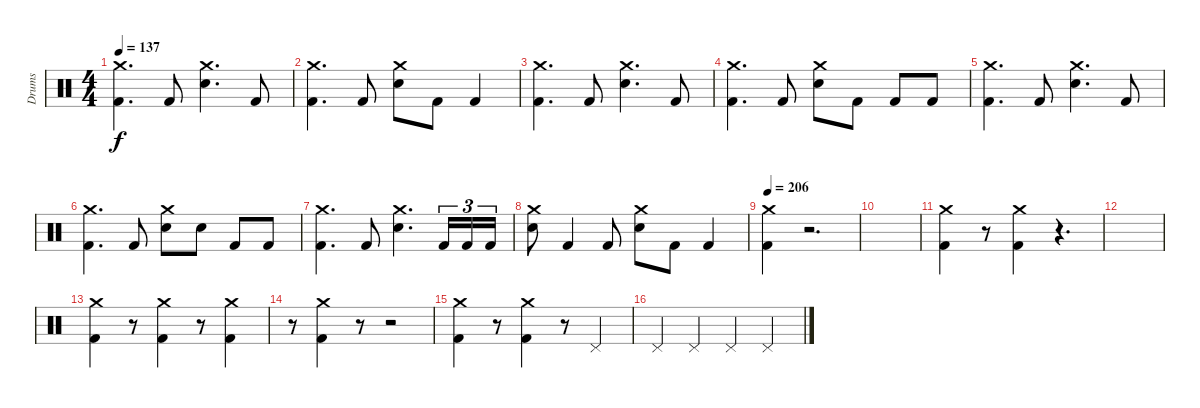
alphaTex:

\track ("Drums" "Drums") {instrument percussion}
\staff {score}
\articulation defaults
\ts (4 4)
\tempo 137
\clef neutral
\ks c
("Kick (hit) 2" "Crash medium (hit)").4{d dy f} "Kick (hit) 2".8 ("Snare (hit) 2" "Crash medium (hit)").4{d} "Kick (hit) 2".8 |
("Kick (hit) 2" "Crash medium (hit)").4{d} "Kick (hit) 2".8 ("Snare (hit) 2" "Crash medium (hit)").8 "Kick (hit) 2".8 "Kick (hit) 2".4 |
("Kick (hit) 2" "Crash medium (hit)").4{d} "Kick (hit) 2".8 ("Snare (hit) 2" "Crash medium (hit)").4{d} "Kick (hit) 2".8 |
("Kick (hit) 2" "Crash medium (hit)").4{d} "Kick (hit) 2".8 ("Snare (hit) 2" "Crash medium (hit)").8 "Kick (hit) 2".8 "Kick (hit) 2".8 "Kick (hit) 2".8 |
("Kick (hit) 2" "Crash medium (hit)").4{d} "Kick (hit) 2".8 ("Snare (hit) 2" "Crash medium (hit)").4{d} "Kick (hit) 2".8 |
("Kick (hit) 2" "Crash medium (hit)").4{d} "Kick (hit) 2".8 ("Snare (hit) 2" "Crash medium (hit)").8 "Snare (hit) 2".8 "Kick (hit) 2".8 "Kick (hit) 2".8 |
("Kick (hit) 2" "Crash medium (hit)").4{d} "Kick (hit) 2".8 ("Snare (hit) 2" "Crash medium (hit)").4{d} "Kick (hit) 2".16{tu (3 2)} "Kick (hit) 2".16{tu (3 2)} "Kick (hit) 2".16{tu (3 2)} |
("Snare (hit) 2" "Crash medium (hit)").8 "Kick (hit) 2".4 "Kick (hit) 2".8 ("Snare (hit) 2" "Crash medium (hit)").8 "Kick (hit) 2".8 "Kick (hit) 2".4 |
\tempo 206
("Kick (hit) 2" "Crash medium (hit)").4 r.2{d} |
|
("Kick (hit) 2" "Crash medium (hit)").4 r.8 ("Kick (hit) 2" "Crash medium (hit)").4 r.4{d} |
|
("Kick (hit) 2" "Crash medium (hit)").4 r.8 ("Kick (hit) 2" "Crash medium (hit)").4 r.8 ("Kick (hit) 2" "Crash medium (hit)").4 |
r.8 ("Kick (hit) 2" "Crash medium (hit)").4 r.8 r.2 |
("Kick (hit) 2" "Crash medium (hit)").4 r.8 ("Kick (hit) 2" "Crash medium (hit)").4 r.8 "Pedal Hi-Hat (hit)".4 |
"Pedal Hi-Hat (hit)".4 "Pedal Hi-Hat (hit)".4 "Pedal Hi-Hat (hit)".4 "Pedal Hi-Hat (hit)".4
